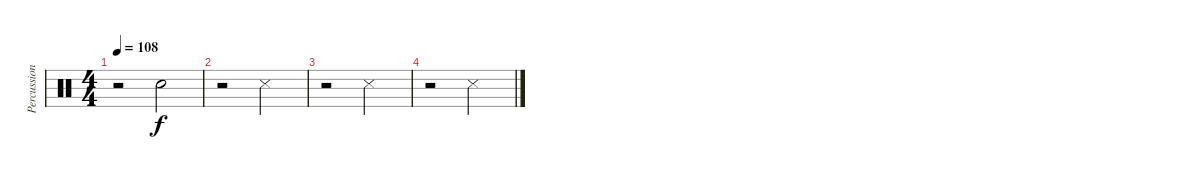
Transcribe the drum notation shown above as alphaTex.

\track ("Percussions (Porcaro J.)" "Percussion") {instrument percussion}
\staff {score}
\articulation defaults
\ts (4 4)
\tempo 108
\clef neutral
\ks c
r.2{dy f} "Snare (hit) 2".2 |
r.2 "Snare (side stick) 3".2 |
r.2 "Snare (side stick) 3".2 |
r.2 "Snare (side stick) 3".2
